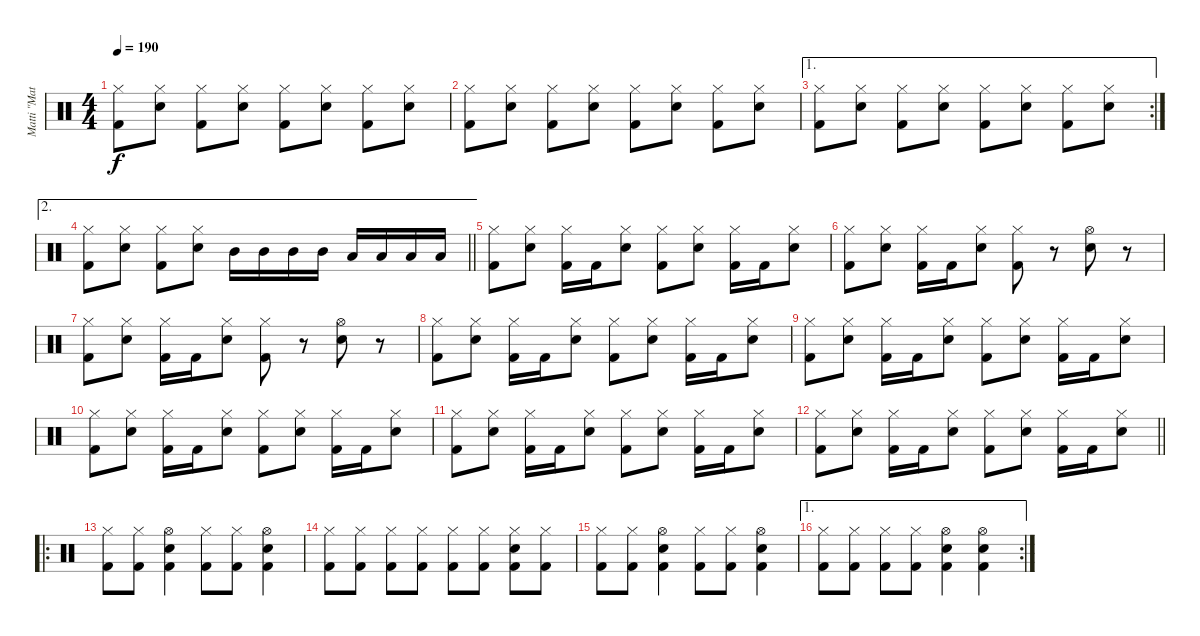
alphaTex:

\track ("Matti \"Matson\" Johansson" "Matti \"Mat") {instrument percussion}
\staff {score}
\articulation defaults
\ts (4 4)
\tempo 190
\clef neutral
\ks c
("Hi-Hat (closed)" "Kick (hit) 2").8{dy f} ("Hi-Hat (closed)" "Snare (hit) 2").8 ("Hi-Hat (closed)" "Kick (hit) 2").8 ("Hi-Hat (closed)" "Snare (hit) 2").8 ("Hi-Hat (closed)" "Kick (hit) 2").8 ("Hi-Hat (closed)" "Snare (hit) 2").8 ("Hi-Hat (closed)" "Kick (hit) 2").8 ("Hi-Hat (closed)" "Snare (hit) 2").8 |
("Hi-Hat (closed)" "Kick (hit) 2").8 ("Hi-Hat (closed)" "Snare (hit) 2").8 ("Hi-Hat (closed)" "Kick (hit) 2").8 ("Hi-Hat (closed)" "Snare (hit) 2").8 ("Hi-Hat (closed)" "Kick (hit) 2").8 ("Hi-Hat (closed)" "Snare (hit) 2").8 ("Hi-Hat (closed)" "Kick (hit) 2").8 ("Hi-Hat (closed)" "Snare (hit) 2").8 |
\ae 1
\rc 2
("Hi-Hat (closed)" "Kick (hit) 2").8 ("Hi-Hat (closed)" "Snare (hit) 2").8 ("Hi-Hat (closed)" "Kick (hit) 2").8 ("Hi-Hat (closed)" "Snare (hit) 2").8 ("Hi-Hat (closed)" "Kick (hit) 2").8 ("Hi-Hat (closed)" "Snare (hit) 2").8 ("Hi-Hat (closed)" "Kick (hit) 2").8 ("Hi-Hat (closed)" "Snare (hit) 2").8 |
\ae 2
\barLineRight lightlight
("Hi-Hat (closed)" "Kick (hit) 2").8 ("Hi-Hat (closed)" "Snare (hit) 2").8 ("Hi-Hat (closed)" "Kick (hit) 2").8 ("Hi-Hat (closed)" "Snare (hit) 2").8 "Mid Tom (hit)".16 "Mid Tom (hit)".16 "Mid Tom (hit)".16 "Mid Tom (hit)".16 "Low Tom (hit)".16 "Low Tom (hit)".16 "Low Tom (hit)".16 "Low Tom (hit)".16 |
\section ("" "")
("Hi-Hat (closed)" "Kick (hit) 2").8 ("Hi-Hat (closed)" "Snare (hit) 2").8 ("Hi-Hat (closed)" "Kick (hit) 2").16 "Kick (hit) 2".16 ("Hi-Hat (closed)" "Snare (hit) 2").8 ("Hi-Hat (closed)" "Kick (hit) 2").8 ("Hi-Hat (closed)" "Snare (hit) 2").8 ("Hi-Hat (closed)" "Kick (hit) 2").16 "Kick (hit) 2".16 ("Hi-Hat (closed)" "Snare (hit) 2").8 |
("Hi-Hat (closed)" "Kick (hit) 2").8 ("Hi-Hat (closed)" "Snare (hit) 2").8 ("Hi-Hat (closed)" "Kick (hit) 2").16 "Kick (hit) 2".16 ("Hi-Hat (closed)" "Snare (hit) 2").8 ("Hi-Hat (closed)" "Kick (hit) 2").8 r.8 ("Hi-Hat (open)" "Snare (hit) 2").8 r.8 |
("Hi-Hat (closed)" "Kick (hit) 2").8 ("Hi-Hat (closed)" "Snare (hit) 2").8 ("Hi-Hat (closed)" "Kick (hit) 2").16 "Kick (hit) 2".16 ("Hi-Hat (closed)" "Snare (hit) 2").8 ("Hi-Hat (closed)" "Kick (hit) 2").8 r.8 ("Hi-Hat (open)" "Snare (hit) 2").8 r.8 |
("Hi-Hat (closed)" "Kick (hit) 2").8 ("Hi-Hat (closed)" "Snare (hit) 2").8 ("Hi-Hat (closed)" "Kick (hit) 2").16 "Kick (hit) 2".16 ("Hi-Hat (closed)" "Snare (hit) 2").8 ("Hi-Hat (closed)" "Kick (hit) 2").8 ("Hi-Hat (closed)" "Snare (hit) 2").8 ("Hi-Hat (closed)" "Kick (hit) 2").16 "Kick (hit) 2".16 ("Hi-Hat (closed)" "Snare (hit) 2").8 |
("Hi-Hat (closed)" "Kick (hit) 2").8 ("Hi-Hat (closed)" "Snare (hit) 2").8 ("Hi-Hat (closed)" "Kick (hit) 2").16 "Kick (hit) 2".16 ("Hi-Hat (closed)" "Snare (hit) 2").8 ("Hi-Hat (closed)" "Kick (hit) 2").8 ("Hi-Hat (closed)" "Snare (hit) 2").8 ("Hi-Hat (closed)" "Kick (hit) 2").16 "Kick (hit) 2".16 ("Hi-Hat (closed)" "Snare (hit) 2").8 |
("Hi-Hat (closed)" "Kick (hit) 2").8 ("Hi-Hat (closed)" "Snare (hit) 2").8 ("Hi-Hat (closed)" "Kick (hit) 2").16 "Kick (hit) 2".16 ("Hi-Hat (closed)" "Snare (hit) 2").8 ("Hi-Hat (closed)" "Kick (hit) 2").8 ("Hi-Hat (closed)" "Snare (hit) 2").8 ("Hi-Hat (closed)" "Kick (hit) 2").16 "Kick (hit) 2".16 ("Hi-Hat (closed)" "Snare (hit) 2").8 |
("Hi-Hat (closed)" "Kick (hit) 2").8 ("Hi-Hat (closed)" "Snare (hit) 2").8 ("Hi-Hat (closed)" "Kick (hit) 2").16 "Kick (hit) 2".16 ("Hi-Hat (closed)" "Snare (hit) 2").8 ("Hi-Hat (closed)" "Kick (hit) 2").8 ("Hi-Hat (closed)" "Snare (hit) 2").8 ("Hi-Hat (closed)" "Kick (hit) 2").16 "Kick (hit) 2".16 ("Hi-Hat (closed)" "Snare (hit) 2").8 |
\barLineRight lightlight
("Hi-Hat (closed)" "Kick (hit) 2").8 ("Hi-Hat (closed)" "Snare (hit) 2").8 ("Hi-Hat (closed)" "Kick (hit) 2").16 "Kick (hit) 2".16 ("Hi-Hat (closed)" "Snare (hit) 2").8 ("Hi-Hat (closed)" "Kick (hit) 2").8 ("Hi-Hat (closed)" "Snare (hit) 2").8 ("Hi-Hat (closed)" "Kick (hit) 2").16 "Kick (hit) 2".16 ("Hi-Hat (closed)" "Snare (hit) 2").8 |
\ro
\section ("" "")
("Hi-Hat (closed)" "Kick (hit) 2").8 ("Hi-Hat (closed)" "Kick (hit) 2").8 ("Hi-Hat (open)" "Snare (hit) 2" "Kick (hit) 2").4 ("Hi-Hat (closed)" "Kick (hit) 2").8 ("Hi-Hat (closed)" "Kick (hit) 2").8 ("Hi-Hat (open)" "Snare (hit) 2" "Kick (hit) 2").4 |
("Hi-Hat (closed)" "Kick (hit) 2").8 ("Hi-Hat (closed)" "Kick (hit) 2").8 ("Hi-Hat (closed)" "Kick (hit) 2").8 ("Hi-Hat (closed)" "Kick (hit) 2").8 ("Hi-Hat (closed)" "Kick (hit) 2").8 ("Hi-Hat (closed)" "Kick (hit) 2").8 ("Hi-Hat (closed)" "Snare (hit) 2" "Kick (hit) 2").8 ("Hi-Hat (closed)" "Kick (hit) 2").8 |
("Hi-Hat (closed)" "Kick (hit) 2").8 ("Hi-Hat (closed)" "Kick (hit) 2").8 ("Hi-Hat (open)" "Snare (hit) 2" "Kick (hit) 2").4 ("Hi-Hat (closed)" "Kick (hit) 2").8 ("Hi-Hat (closed)" "Kick (hit) 2").8 ("Hi-Hat (open)" "Snare (hit) 2" "Kick (hit) 2").4 |
\ae 1
\rc 2
("Hi-Hat (closed)" "Kick (hit) 2").8 ("Hi-Hat (closed)" "Kick (hit) 2").8 ("Hi-Hat (closed)" "Kick (hit) 2").8 ("Hi-Hat (closed)" "Kick (hit) 2").8 ("Hi-Hat (open)" "Snare (hit) 2" "Kick (hit) 2").4 ("Hi-Hat (open)" "Snare (hit) 2" "Kick (hit) 2").4
